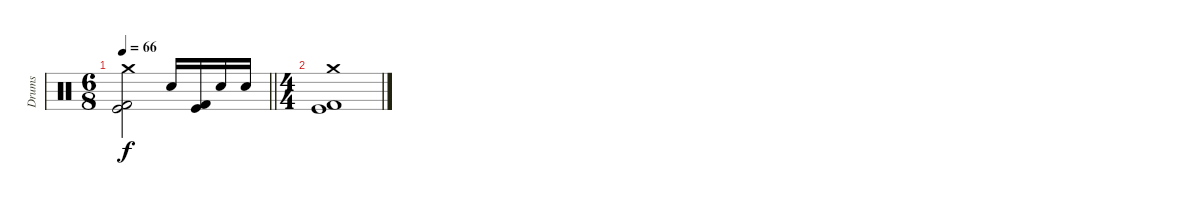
\track ("Drums" "Drums") {instrument percussion}
\staff {score}
\articulation defaults
\ts (6 8)
\tempo 66
\clef neutral
\barLineRight lightlight
\ks c
("Crash medium (hit)" "Kick (hit)" "Kick (hit) 2").2{dy f} "Electric Snare (hit)".16 ("Kick (hit)" "Kick (hit) 2").16 "Electric Snare (hit)".16 "Electric Snare (hit)".16 |
\ts (4 4)
("Crash medium (hit)" "Kick (hit)" "Kick (hit) 2").1
